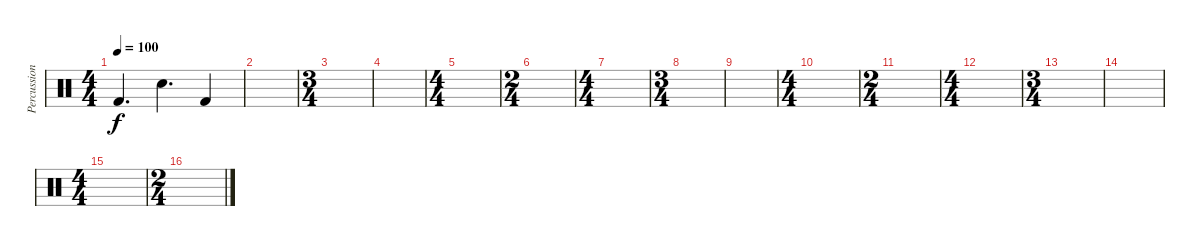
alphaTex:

\track ("Percussion" "Percussion") {mute instrument percussion}
\staff {score}
\articulation defaults
\ts (4 4)
\tempo 100
\clef neutral
\ks c "Kick (hit) 2".4{d dy f} "Electric Snare (hit)".4{d} "Kick (hit) 2".4
|
|
\ts (3 4)
|
|
\ts (4 4)
|
\ts (2 4)
|
\ts (4 4)
|
\ts (3 4)
|
|
\ts (4 4)
|
\ts (2 4)
|
\ts (4 4)
|
\ts (3 4)
|
|
\ts (4 4)
|
\ts (2 4)
